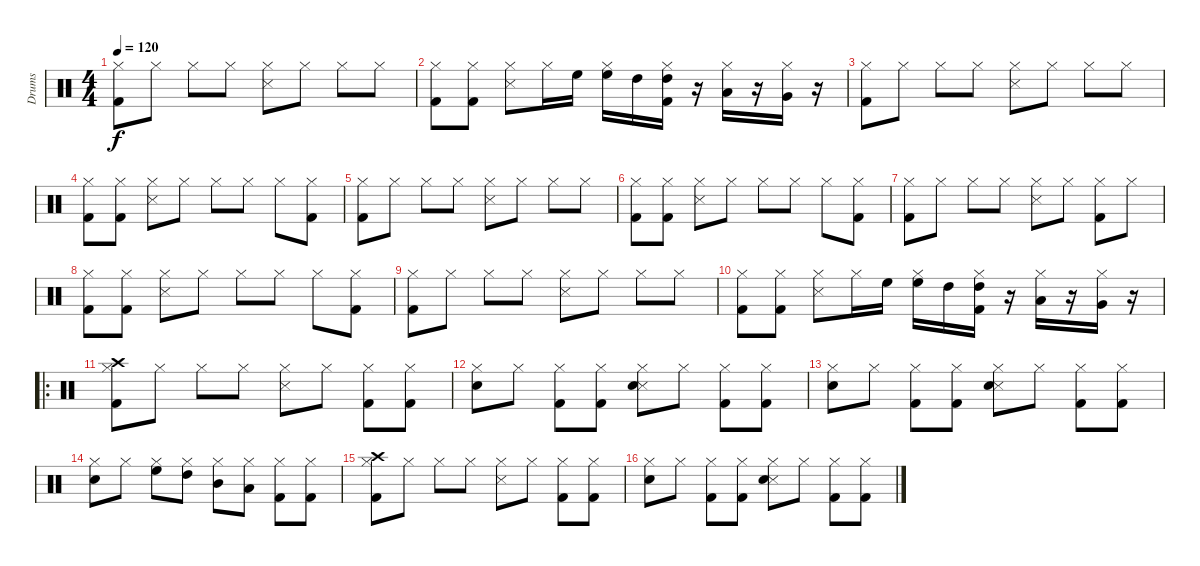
\track ("Drums" "Drums") {instrument percussion}
\staff {score}
\articulation defaults
\ts (4 4)
\tempo 120
\clef neutral
\ks c
("Hi-Hat (closed)" "Kick (hit) 2").8{dy f} "Hi-Hat (closed)".8 "Hi-Hat (closed)".8 "Hi-Hat (closed)".8 ("Hi-Hat (closed)" "Snare (side stick) 3").8 "Hi-Hat (closed)".8 "Hi-Hat (closed)".8 "Hi-Hat (closed)".8 |
("Hi-Hat (closed)" "Kick (hit) 2").8 ("Hi-Hat (closed)" "Kick (hit) 2").8 ("Hi-Hat (closed)" "Snare (side stick) 3").8 "Hi-Hat (closed)".16 "High Floor Tom (hit)".16 ("Hi-Hat (closed)" "High Floor Tom (hit)").16 "High Tom (hit)".16 ("Hi-Hat (closed)" "Kick (hit) 2" "High Tom (hit)").16 r.16 ("Hi-Hat (closed)" "Low Tom (hit)").16 r.16 ("Hi-Hat (closed)" "Very Low Tom (hit)").16 r.16 |
("Hi-Hat (closed)" "Kick (hit) 2").8 "Hi-Hat (closed)".8 "Hi-Hat (closed)".8 "Hi-Hat (closed)".8 ("Hi-Hat (closed)" "Snare (side stick) 3").8 "Hi-Hat (closed)".8 "Hi-Hat (closed)".8 "Hi-Hat (closed)".8 |
("Hi-Hat (closed)" "Kick (hit) 2").8 ("Hi-Hat (closed)" "Kick (hit) 2").8 ("Hi-Hat (closed)" "Snare (side stick) 3").8 "Hi-Hat (closed)".8 "Hi-Hat (closed)".8 "Hi-Hat (closed)".8 "Hi-Hat (closed)".8 ("Hi-Hat (closed)" "Kick (hit) 2").8 |
("Hi-Hat (closed)" "Kick (hit) 2").8 "Hi-Hat (closed)".8 "Hi-Hat (closed)".8 "Hi-Hat (closed)".8 ("Hi-Hat (closed)" "Snare (side stick) 3").8 "Hi-Hat (closed)".8 "Hi-Hat (closed)".8 "Hi-Hat (closed)".8 |
("Hi-Hat (closed)" "Kick (hit) 2").8 ("Hi-Hat (closed)" "Kick (hit) 2").8 ("Hi-Hat (closed)" "Snare (side stick) 3").8 "Hi-Hat (closed)".8 "Hi-Hat (closed)".8 "Hi-Hat (closed)".8 "Hi-Hat (closed)".8 ("Hi-Hat (closed)" "Kick (hit) 2").8 |
("Hi-Hat (closed)" "Kick (hit) 2").8 "Hi-Hat (closed)".8 "Hi-Hat (closed)".8 "Hi-Hat (closed)".8 ("Hi-Hat (closed)" "Snare (side stick) 3").8 "Hi-Hat (closed)".8 ("Hi-Hat (closed)" "Kick (hit) 2").8 "Hi-Hat (closed)".8 |
("Hi-Hat (closed)" "Kick (hit) 2").8 ("Hi-Hat (closed)" "Kick (hit) 2").8 ("Hi-Hat (closed)" "Snare (side stick) 3").8 "Hi-Hat (closed)".8 "Hi-Hat (closed)".8 "Hi-Hat (closed)".8 "Hi-Hat (closed)".8 ("Hi-Hat (closed)" "Kick (hit) 2").8 |
("Hi-Hat (closed)" "Kick (hit) 2").8 "Hi-Hat (closed)".8 "Hi-Hat (closed)".8 "Hi-Hat (closed)".8 ("Hi-Hat (closed)" "Snare (side stick) 3").8 "Hi-Hat (closed)".8 "Hi-Hat (closed)".8 "Hi-Hat (closed)".8 |
("Hi-Hat (closed)" "Kick (hit) 2").8 ("Hi-Hat (closed)" "Kick (hit) 2").8 ("Hi-Hat (closed)" "Snare (side stick) 3").8 "Hi-Hat (closed)".16 "High Floor Tom (hit)".16 ("Hi-Hat (closed)" "High Floor Tom (hit)").16 "High Tom (hit)".16 ("Hi-Hat (closed)" "Kick (hit) 2" "High Tom (hit)").16 r.16 ("Hi-Hat (closed)" "Low Tom (hit)").16 r.16 ("Hi-Hat (closed)" "Very Low Tom (hit)").16 r.16 |
\ro
("Hi-Hat (closed)" "Kick (hit) 2" "Crash high (hit)").8 "Hi-Hat (closed)".8 "Hi-Hat (closed)".8 "Hi-Hat (closed)".8 ("Hi-Hat (closed)" "Snare (side stick) 3").8 "Hi-Hat (closed)".8 ("Hi-Hat (closed)" "Kick (hit) 2").8 ("Hi-Hat (closed)" "Kick (hit) 2").8 |
("Hi-Hat (closed)" "Electric Snare (hit)").8 "Hi-Hat (closed)".8 ("Hi-Hat (closed)" "Kick (hit) 2").8 ("Hi-Hat (closed)" "Kick (hit) 2").8 ("Hi-Hat (closed)" "Snare (side stick) 3" "Snare (hit) 2").8 "Hi-Hat (closed)".8 ("Hi-Hat (closed)" "Kick (hit) 2").8 ("Hi-Hat (closed)" "Kick (hit) 2").8 |
("Hi-Hat (closed)" "Electric Snare (hit)").8 "Hi-Hat (closed)".8 ("Hi-Hat (closed)" "Kick (hit) 2").8 ("Hi-Hat (closed)" "Kick (hit) 2").8 ("Hi-Hat (closed)" "Snare (side stick) 3" "Snare (hit) 2").8 "Hi-Hat (closed)".8 ("Hi-Hat (closed)" "Kick (hit) 2").8 ("Hi-Hat (closed)" "Kick (hit) 2").8 |
("Hi-Hat (closed)" "Electric Snare (hit)").8 "Hi-Hat (closed)".8 ("Hi-Hat (closed)" "High Floor Tom (hit)").8 ("Hi-Hat (closed)" "High Tom (hit)").8 ("Hi-Hat (closed)" "Mid Tom (hit)").8 ("Hi-Hat (closed)" "Low Tom (hit)").8 ("Hi-Hat (closed)" "Kick (hit) 2").8 ("Hi-Hat (closed)" "Kick (hit) 2").8 |
("Hi-Hat (closed)" "Kick (hit) 2" "Crash high (hit)").8 "Hi-Hat (closed)".8 "Hi-Hat (closed)".8 "Hi-Hat (closed)".8 ("Hi-Hat (closed)" "Snare (side stick) 3").8 "Hi-Hat (closed)".8 ("Hi-Hat (closed)" "Kick (hit) 2").8 ("Hi-Hat (closed)" "Kick (hit) 2").8 |
("Hi-Hat (closed)" "Electric Snare (hit)").8 "Hi-Hat (closed)".8 ("Hi-Hat (closed)" "Kick (hit) 2").8 ("Hi-Hat (closed)" "Kick (hit) 2").8 ("Hi-Hat (closed)" "Snare (side stick) 3" "Snare (hit) 2").8 "Hi-Hat (closed)".8 ("Hi-Hat (closed)" "Kick (hit) 2").8 ("Hi-Hat (closed)" "Kick (hit) 2").8
